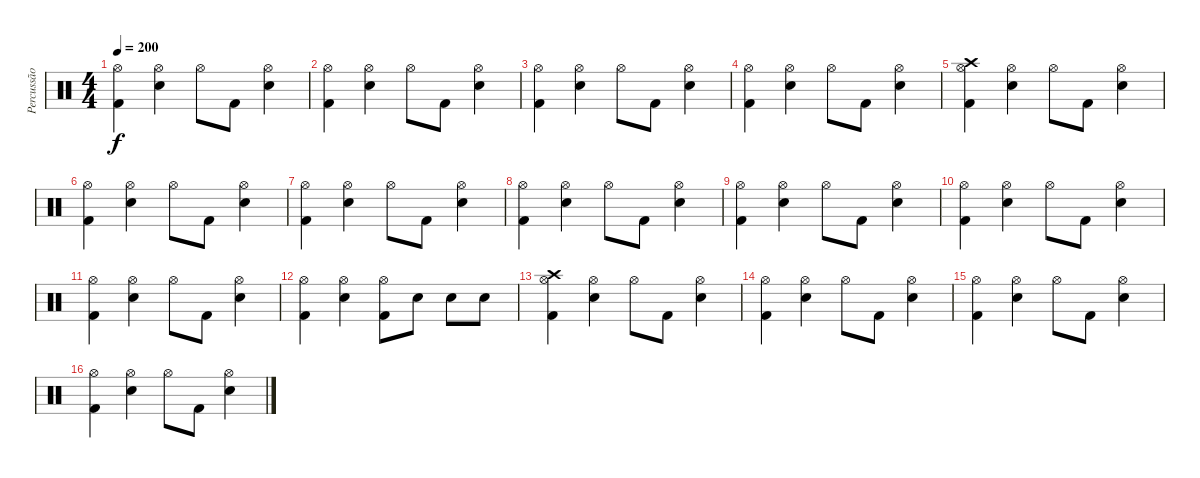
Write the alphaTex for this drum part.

\track ("Percussão" "Percussão") {instrument percussion}
\staff {score}
\articulation defaults
\ts (4 4)
\tempo 200
\clef neutral
\ks c
("Hi-Hat (open)" "Kick (hit) 2").4{dy f} ("Hi-Hat (open)" "Electric Snare (hit)").4 "Hi-Hat (open)".8 "Kick (hit) 2".8 ("Hi-Hat (open)" "Electric Snare (hit)").4 |
("Hi-Hat (open)" "Kick (hit) 2").4 ("Hi-Hat (open)" "Electric Snare (hit)").4 "Hi-Hat (open)".8 "Kick (hit) 2".8 ("Hi-Hat (open)" "Electric Snare (hit)").4 |
("Hi-Hat (open)" "Kick (hit) 2").4 ("Hi-Hat (open)" "Electric Snare (hit)").4 "Hi-Hat (open)".8 "Kick (hit) 2".8 ("Hi-Hat (open)" "Electric Snare (hit)").4 |
("Hi-Hat (open)" "Kick (hit) 2").4 ("Hi-Hat (open)" "Electric Snare (hit)").4 "Hi-Hat (open)".8 "Kick (hit) 2".8 ("Hi-Hat (open)" "Electric Snare (hit)").4 |
("Hi-Hat (open)" "Crash high (hit)" "Kick (hit) 2").4 ("Hi-Hat (open)" "Electric Snare (hit)").4 "Hi-Hat (open)".8 "Kick (hit) 2".8 ("Hi-Hat (open)" "Electric Snare (hit)").4 |
("Hi-Hat (open)" "Kick (hit) 2").4 ("Hi-Hat (open)" "Electric Snare (hit)").4 "Hi-Hat (open)".8 "Kick (hit) 2".8 ("Hi-Hat (open)" "Electric Snare (hit)").4 |
("Hi-Hat (open)" "Kick (hit) 2").4 ("Hi-Hat (open)" "Electric Snare (hit)").4 "Hi-Hat (open)".8 "Kick (hit) 2".8 ("Hi-Hat (open)" "Electric Snare (hit)").4 |
("Hi-Hat (open)" "Kick (hit) 2").4 ("Hi-Hat (open)" "Electric Snare (hit)").4 "Hi-Hat (open)".8 "Kick (hit) 2".8 ("Hi-Hat (open)" "Electric Snare (hit)").4 |
("Hi-Hat (open)" "Kick (hit) 2").4 ("Hi-Hat (open)" "Electric Snare (hit)").4 "Hi-Hat (open)".8 "Kick (hit) 2".8 ("Hi-Hat (open)" "Electric Snare (hit)").4 |
("Hi-Hat (open)" "Kick (hit) 2").4 ("Hi-Hat (open)" "Electric Snare (hit)").4 "Hi-Hat (open)".8 "Kick (hit) 2".8 ("Hi-Hat (open)" "Electric Snare (hit)").4 |
("Hi-Hat (open)" "Kick (hit) 2").4 ("Hi-Hat (open)" "Electric Snare (hit)").4 "Hi-Hat (open)".8 "Kick (hit) 2".8 ("Hi-Hat (open)" "Electric Snare (hit)").4 |
("Hi-Hat (open)" "Kick (hit) 2").4 ("Hi-Hat (open)" "Electric Snare (hit)").4 ("Hi-Hat (open)" "Kick (hit) 2").8 "Electric Snare (hit)".8 "Electric Snare (hit)".8 "Electric Snare (hit)".8 |
("Hi-Hat (open)" "Crash high (hit)" "Kick (hit) 2").4 ("Hi-Hat (open)" "Electric Snare (hit)").4 "Hi-Hat (open)".8 "Kick (hit) 2".8 ("Hi-Hat (open)" "Electric Snare (hit)").4 |
("Hi-Hat (open)" "Kick (hit) 2").4 ("Hi-Hat (open)" "Electric Snare (hit)").4 "Hi-Hat (open)".8 "Kick (hit) 2".8 ("Hi-Hat (open)" "Electric Snare (hit)").4 |
("Hi-Hat (open)" "Kick (hit) 2").4 ("Hi-Hat (open)" "Electric Snare (hit)").4 "Hi-Hat (open)".8 "Kick (hit) 2".8 ("Hi-Hat (open)" "Electric Snare (hit)").4 |
("Hi-Hat (open)" "Kick (hit) 2").4 ("Hi-Hat (open)" "Electric Snare (hit)").4 "Hi-Hat (open)".8 "Kick (hit) 2".8 ("Hi-Hat (open)" "Electric Snare (hit)").4
